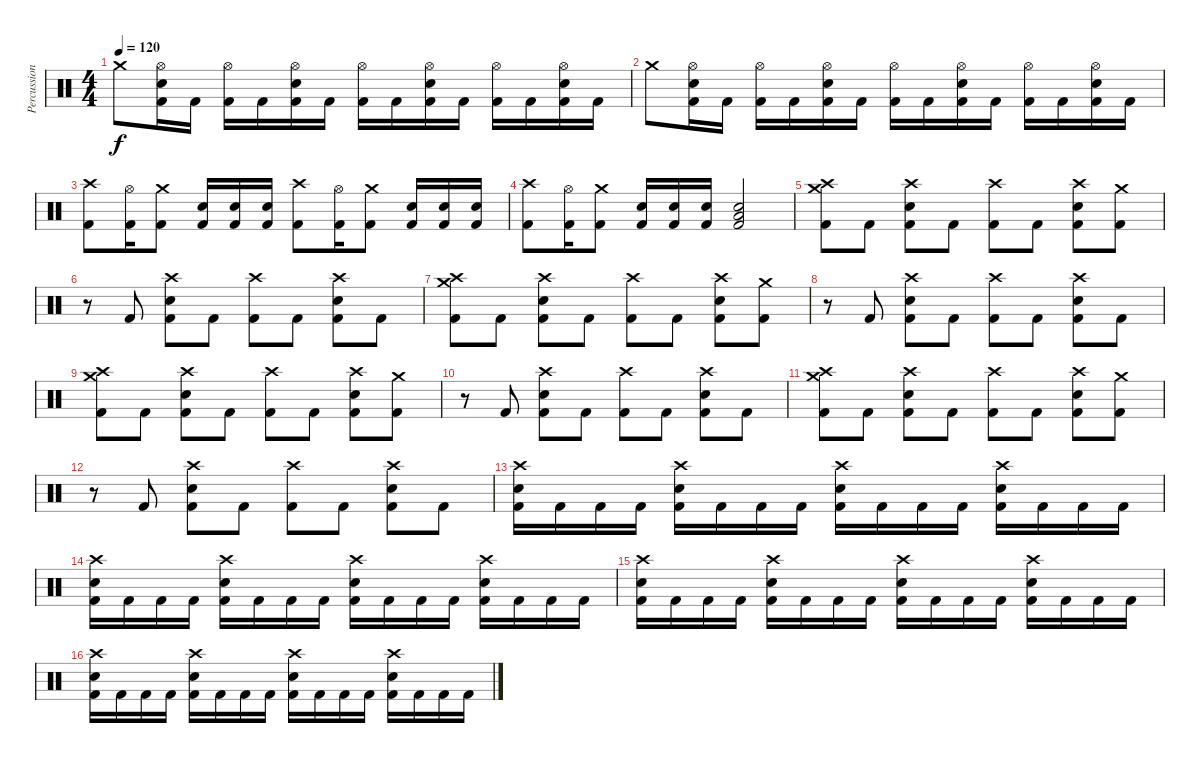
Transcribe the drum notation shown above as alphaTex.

\track ("Percussion" "Percussion") {instrument percussion}
\staff {score}
\articulation defaults
\ts (4 4)
\tempo 120
\clef neutral
\ks c "Crash medium (hit)".8{dy f}
("Snare (hit) 2" "Hi-Hat (open)" "Kick (hit) 2").16 "Kick (hit) 2".16 ("Hi-Hat (open)" "Kick (hit) 2").16 "Kick (hit) 2".16 ("Snare (hit) 2" "Hi-Hat (open)" "Kick (hit) 2").16 "Kick (hit) 2".16 ("Hi-Hat (open)" "Kick (hit) 2").16 "Kick (hit) 2".16 ("Snare (hit) 2" "Hi-Hat (open)" "Kick (hit) 2").16 "Kick (hit) 2".16 ("Hi-Hat (open)" "Kick (hit) 2").16 "Kick (hit) 2".16 ("Snare (hit) 2" "Hi-Hat (open)" "Kick (hit) 2").16 "Kick (hit) 2".16 |
"Crash medium (hit)".8 ("Snare (hit) 2" "Hi-Hat (open)" "Kick (hit) 2").16 "Kick (hit) 2".16 ("Hi-Hat (open)" "Kick (hit) 2").16 "Kick (hit) 2".16 ("Snare (hit) 2" "Hi-Hat (open)" "Kick (hit) 2").16 "Kick (hit) 2".16 ("Hi-Hat (open)" "Kick (hit) 2").16 "Kick (hit) 2".16 ("Snare (hit) 2" "Hi-Hat (open)" "Kick (hit) 2").16 "Kick (hit) 2".16 ("Hi-Hat (open)" "Kick (hit) 2").16 "Kick (hit) 2".16 ("Snare (hit) 2" "Hi-Hat (open)" "Kick (hit) 2").16 "Kick (hit) 2".16 |
("Kick (hit) 2" "Crash high (hit)").8 ("Kick (hit) 2" "Hi-Hat (open)").16 ("Kick (hit) 2" "Crash medium (hit)").8 ("Kick (hit) 2" "Electric Snare (hit)").16 ("Kick (hit) 2" "Electric Snare (hit)").16 ("Kick (hit) 2" "Electric Snare (hit)").16 ("Kick (hit) 2" "Crash high (hit)").8 ("Kick (hit) 2" "Hi-Hat (open)").16 ("Kick (hit) 2" "Crash medium (hit)").8 ("Kick (hit) 2" "Electric Snare (hit)").16 ("Kick (hit) 2" "Electric Snare (hit)").16 ("Kick (hit) 2" "Electric Snare (hit)").16 |
("Kick (hit) 2" "Crash high (hit)").8 ("Kick (hit) 2" "Hi-Hat (open)").16 ("Kick (hit) 2" "Crash medium (hit)").8 ("Kick (hit) 2" "Electric Snare (hit)").16 ("Kick (hit) 2" "Electric Snare (hit)").16 ("Kick (hit) 2" "Electric Snare (hit)").16 ("Low Floor Tom (hit)" "Kick (hit) 2" "Electric Snare (hit)").2 |
("Crash medium (hit)" "Crash high (hit)" "Kick (hit) 2").8 "Kick (hit) 2".8 ("Crash high (hit)" "Snare (hit) 2" "Kick (hit) 2").8 "Kick (hit) 2".8 ("Crash high (hit)" "Kick (hit) 2").8 "Kick (hit) 2".8 ("Crash high (hit)" "Snare (hit) 2" "Kick (hit) 2").8 ("Crash medium (hit)" "Kick (hit) 2").8 |
r.8 "Kick (hit) 2".8 ("Crash high (hit)" "Kick (hit) 2" "Snare (hit) 2").8 "Kick (hit) 2".8 ("Crash high (hit)" "Kick (hit) 2").8 "Kick (hit) 2".8 ("Crash high (hit)" "Kick (hit) 2" "Snare (hit) 2").8 "Kick (hit) 2".8 |
("Crash medium (hit)" "Crash high (hit)" "Kick (hit) 2").8 "Kick (hit) 2".8 ("Crash high (hit)" "Snare (hit) 2" "Kick (hit) 2").8 "Kick (hit) 2".8 ("Crash high (hit)" "Kick (hit) 2").8 "Kick (hit) 2".8 ("Crash high (hit)" "Snare (hit) 2" "Kick (hit) 2").8 ("Crash medium (hit)" "Kick (hit) 2").8 |
r.8 "Kick (hit) 2".8 ("Crash high (hit)" "Kick (hit) 2" "Snare (hit) 2").8 "Kick (hit) 2".8 ("Crash high (hit)" "Kick (hit) 2").8 "Kick (hit) 2".8 ("Crash high (hit)" "Kick (hit) 2" "Snare (hit) 2").8 "Kick (hit) 2".8 |
("Crash medium (hit)" "Crash high (hit)" "Kick (hit) 2").8 "Kick (hit) 2".8 ("Crash high (hit)" "Snare (hit) 2" "Kick (hit) 2").8 "Kick (hit) 2".8 ("Crash high (hit)" "Kick (hit) 2").8 "Kick (hit) 2".8 ("Crash high (hit)" "Snare (hit) 2" "Kick (hit) 2").8 ("Crash medium (hit)" "Kick (hit) 2").8 |
r.8 "Kick (hit) 2".8 ("Crash high (hit)" "Kick (hit) 2" "Snare (hit) 2").8 "Kick (hit) 2".8 ("Crash high (hit)" "Kick (hit) 2").8 "Kick (hit) 2".8 ("Crash high (hit)" "Kick (hit) 2" "Snare (hit) 2").8 "Kick (hit) 2".8 |
("Crash medium (hit)" "Crash high (hit)" "Kick (hit) 2").8 "Kick (hit) 2".8 ("Crash high (hit)" "Snare (hit) 2" "Kick (hit) 2").8 "Kick (hit) 2".8 ("Crash high (hit)" "Kick (hit) 2").8 "Kick (hit) 2".8 ("Crash high (hit)" "Snare (hit) 2" "Kick (hit) 2").8 ("Crash medium (hit)" "Kick (hit) 2").8 |
r.8 "Kick (hit) 2".8 ("Crash high (hit)" "Kick (hit) 2" "Snare (hit) 2").8 "Kick (hit) 2".8 ("Crash high (hit)" "Kick (hit) 2").8 "Kick (hit) 2".8 ("Crash high (hit)" "Kick (hit) 2" "Snare (hit) 2").8 "Kick (hit) 2".8 |
("Snare (hit) 2" "Crash high (hit)" "Kick (hit) 2").16 "Kick (hit) 2".16 "Kick (hit) 2".16 "Kick (hit) 2".16 ("Snare (hit) 2" "Crash high (hit)" "Kick (hit) 2").16 "Kick (hit) 2".16 "Kick (hit) 2".16 "Kick (hit) 2".16 ("Snare (hit) 2" "Crash high (hit)" "Kick (hit) 2").16 "Kick (hit) 2".16 "Kick (hit) 2".16 "Kick (hit) 2".16 ("Snare (hit) 2" "Crash high (hit)" "Kick (hit) 2").16 "Kick (hit) 2".16 "Kick (hit) 2".16 "Kick (hit) 2".16 |
("Snare (hit) 2" "Crash high (hit)" "Kick (hit) 2").16 "Kick (hit) 2".16 "Kick (hit) 2".16 "Kick (hit) 2".16 ("Snare (hit) 2" "Crash high (hit)" "Kick (hit) 2").16 "Kick (hit) 2".16 "Kick (hit) 2".16 "Kick (hit) 2".16 ("Snare (hit) 2" "Crash high (hit)" "Kick (hit) 2").16 "Kick (hit) 2".16 "Kick (hit) 2".16 "Kick (hit) 2".16 ("Snare (hit) 2" "Crash high (hit)" "Kick (hit) 2").16 "Kick (hit) 2".16 "Kick (hit) 2".16 "Kick (hit) 2".16 |
("Snare (hit) 2" "Crash high (hit)" "Kick (hit) 2").16 "Kick (hit) 2".16 "Kick (hit) 2".16 "Kick (hit) 2".16 ("Snare (hit) 2" "Crash high (hit)" "Kick (hit) 2").16 "Kick (hit) 2".16 "Kick (hit) 2".16 "Kick (hit) 2".16 ("Snare (hit) 2" "Crash high (hit)" "Kick (hit) 2").16 "Kick (hit) 2".16 "Kick (hit) 2".16 "Kick (hit) 2".16 ("Snare (hit) 2" "Crash high (hit)" "Kick (hit) 2").16 "Kick (hit) 2".16 "Kick (hit) 2".16 "Kick (hit) 2".16 |
("Snare (hit) 2" "Crash high (hit)" "Kick (hit) 2").16 "Kick (hit) 2".16 "Kick (hit) 2".16 "Kick (hit) 2".16 ("Snare (hit) 2" "Crash high (hit)" "Kick (hit) 2").16 "Kick (hit) 2".16 "Kick (hit) 2".16 "Kick (hit) 2".16 ("Snare (hit) 2" "Crash high (hit)" "Kick (hit) 2").16 "Kick (hit) 2".16 "Kick (hit) 2".16 "Kick (hit) 2".16 ("Snare (hit) 2" "Crash high (hit)" "Kick (hit) 2").16 "Kick (hit) 2".16 "Kick (hit) 2".16 "Kick (hit) 2".16
